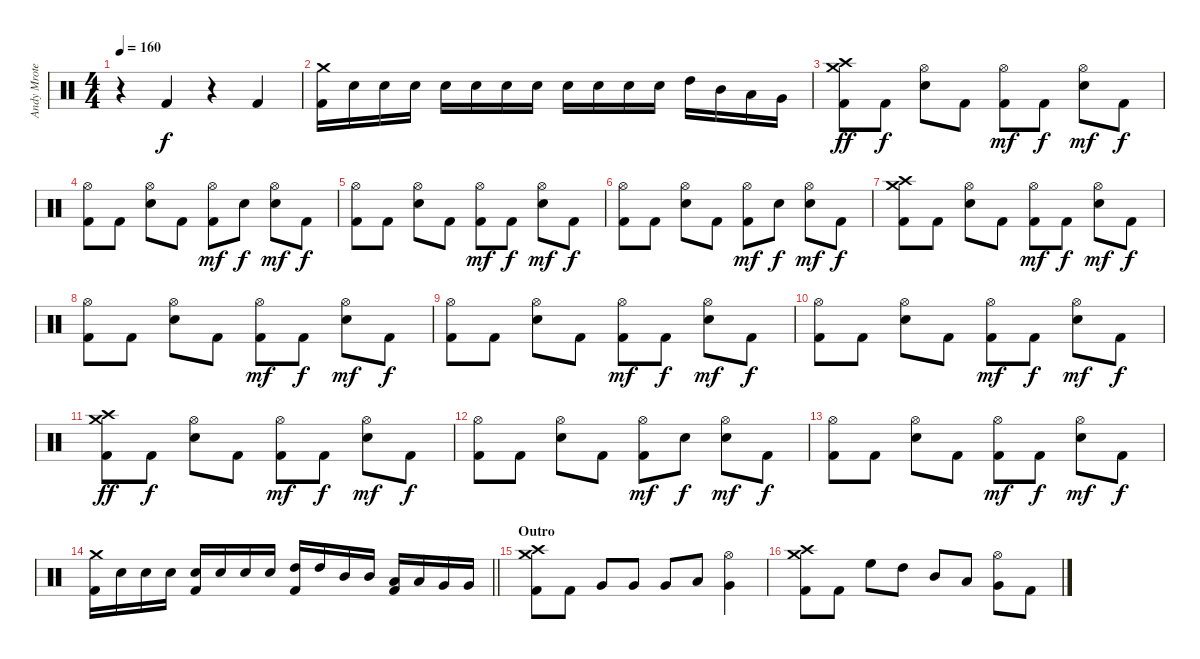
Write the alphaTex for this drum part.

\track ("Andy Mrotek (Drums)" "Andy Mrote") {instrument percussion}
\staff {score}
\articulation defaults
\ts (4 4)
\tempo 160
\clef neutral
\ks c
r.4{dy f} "Kick (hit) 2".4 r.4 "Kick (hit) 2".4 |
("Crash medium (hit)" "Kick (hit) 2").16 "Electric Snare (hit)".16 "Electric Snare (hit)".16 "Electric Snare (hit)".16 "Electric Snare (hit)".16 "Electric Snare (hit)".16 "Electric Snare (hit)".16 "Electric Snare (hit)".16 "Electric Snare (hit)".16 "Electric Snare (hit)".16 "Electric Snare (hit)".16 "Electric Snare (hit)".16 "High Tom (hit)".16 "Mid Tom (hit)".16 "Low Tom (hit)".16 "Very Low Tom (hit)".16 |
("Crash high (hit)" "Crash medium (hit)" "Kick (hit) 2").8{dy ff} "Kick (hit) 2".8{dy f} ("Hi-Hat (open)" "Electric Snare (hit)").8 "Kick (hit) 2".8 ("Hi-Hat (open)" "Kick (hit) 2").8{dy mf} "Kick (hit) 2".8{dy f} ("Hi-Hat (open)" "Electric Snare (hit)").8{dy mf} "Kick (hit) 2".8{dy f} |
("Hi-Hat (open)" "Kick (hit) 2").8 "Kick (hit) 2".8 ("Hi-Hat (open)" "Electric Snare (hit)").8 "Kick (hit) 2".8 ("Hi-Hat (open)" "Kick (hit) 2").8{dy mf} "Electric Snare (hit)".8{dy f} ("Hi-Hat (open)" "Electric Snare (hit)").8{dy mf} "Kick (hit) 2".8{dy f} |
("Hi-Hat (open)" "Kick (hit) 2").8 "Kick (hit) 2".8 ("Hi-Hat (open)" "Electric Snare (hit)").8 "Kick (hit) 2".8 ("Hi-Hat (open)" "Kick (hit) 2").8{dy mf} "Kick (hit) 2".8{dy f} ("Hi-Hat (open)" "Electric Snare (hit)").8{dy mf} "Kick (hit) 2".8{dy f} |
("Hi-Hat (open)" "Kick (hit) 2").8 "Kick (hit) 2".8 ("Hi-Hat (open)" "Electric Snare (hit)").8 "Kick (hit) 2".8 ("Hi-Hat (open)" "Kick (hit) 2").8{dy mf} "Electric Snare (hit)".8{dy f} ("Hi-Hat (open)" "Electric Snare (hit)").8{dy mf} "Kick (hit) 2".8{dy f} |
("Crash high (hit)" "Crash medium (hit)" "Kick (hit) 2").8 "Kick (hit) 2".8 ("Hi-Hat (open)" "Electric Snare (hit)").8 "Kick (hit) 2".8 ("Hi-Hat (open)" "Kick (hit) 2").8{dy mf} "Kick (hit) 2".8{dy f} ("Hi-Hat (open)" "Electric Snare (hit)").8{dy mf} "Kick (hit) 2".8{dy f} |
("Hi-Hat (open)" "Kick (hit) 2").8 "Kick (hit) 2".8 ("Hi-Hat (open)" "Electric Snare (hit)").8 "Kick (hit) 2".8 ("Hi-Hat (open)" "Kick (hit) 2").8{dy mf} "Kick (hit) 2".8{dy f} ("Hi-Hat (open)" "Electric Snare (hit)").8{dy mf} "Kick (hit) 2".8{dy f} |
("Hi-Hat (open)" "Kick (hit) 2").8 "Kick (hit) 2".8 ("Hi-Hat (open)" "Electric Snare (hit)").8 "Kick (hit) 2".8 ("Hi-Hat (open)" "Kick (hit) 2").8{dy mf} "Kick (hit) 2".8{dy f} ("Hi-Hat (open)" "Electric Snare (hit)").8{dy mf} "Kick (hit) 2".8{dy f} |
("Hi-Hat (open)" "Kick (hit) 2").8 "Kick (hit) 2".8 ("Hi-Hat (open)" "Electric Snare (hit)").8 "Kick (hit) 2".8 ("Hi-Hat (open)" "Kick (hit) 2").8{dy mf} "Kick (hit) 2".8{dy f} ("Hi-Hat (open)" "Electric Snare (hit)").8{dy mf} "Kick (hit) 2".8{dy f} |
("Crash high (hit)" "Crash medium (hit)" "Kick (hit) 2").8{dy ff} "Kick (hit) 2".8{dy f} ("Hi-Hat (open)" "Electric Snare (hit)").8 "Kick (hit) 2".8 ("Hi-Hat (open)" "Kick (hit) 2").8{dy mf} "Kick (hit) 2".8{dy f} ("Hi-Hat (open)" "Electric Snare (hit)").8{dy mf} "Kick (hit) 2".8{dy f} |
("Hi-Hat (open)" "Kick (hit) 2").8 "Kick (hit) 2".8 ("Hi-Hat (open)" "Electric Snare (hit)").8 "Kick (hit) 2".8 ("Hi-Hat (open)" "Kick (hit) 2").8{dy mf} "Electric Snare (hit)".8{dy f} ("Hi-Hat (open)" "Electric Snare (hit)").8{dy mf} "Kick (hit) 2".8{dy f} |
("Hi-Hat (open)" "Kick (hit) 2").8 "Kick (hit) 2".8 ("Hi-Hat (open)" "Electric Snare (hit)").8 "Kick (hit) 2".8 ("Hi-Hat (open)" "Kick (hit) 2").8{dy mf} "Kick (hit) 2".8{dy f} ("Hi-Hat (open)" "Electric Snare (hit)").8{dy mf} "Kick (hit) 2".8{dy f} |
\barLineRight lightlight
("Crash medium (hit)" "Kick (hit) 2").16 "Electric Snare (hit)".16 "Electric Snare (hit)".16 "Electric Snare (hit)".16 ("Electric Snare (hit)" "Kick (hit) 2").16 "Electric Snare (hit)".16 "Electric Snare (hit)".16 "Electric Snare (hit)".16 ("High Tom (hit)" "Kick (hit) 2").16 "High Tom (hit)".16 "Mid Tom (hit)".16 "Mid Tom (hit)".16 ("Low Tom (hit)" "Kick (hit) 2").16 "Low Tom (hit)".16 "Very Low Tom (hit)".16 "Very Low Tom (hit)".16 |
\section ("" "Outro")
("Crash high (hit)" "Crash medium (hit)" "Kick (hit) 2").8 "Kick (hit) 2".8 "Very Low Tom (hit)".8 "Very Low Tom (hit)".8 "Very Low Tom (hit)".8 "Low Tom (hit)".8 ("Hi-Hat (open)" "Very Low Tom (hit)").4 |
("Crash high (hit)" "Crash medium (hit)" "Kick (hit) 2").8 "Kick (hit) 2".8 "High Floor Tom (hit)".8 "High Tom (hit)".8 "Mid Tom (hit)".8 "Low Tom (hit)".8 ("Hi-Hat (open)" "Very Low Tom (hit)").8 "Kick (hit) 2".8
